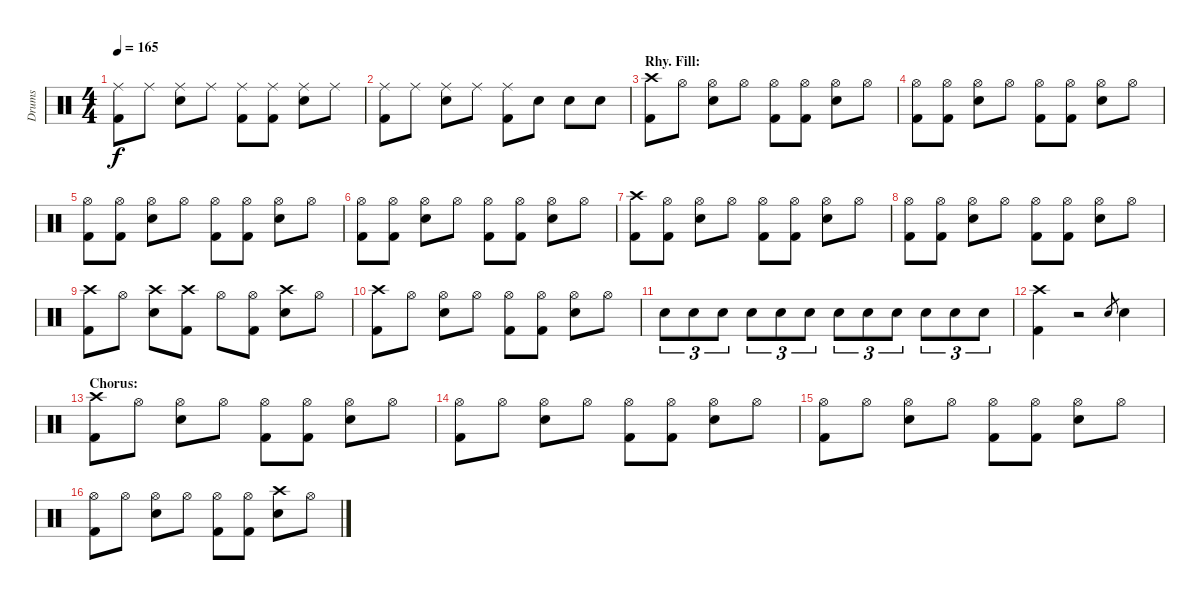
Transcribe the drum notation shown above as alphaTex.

\track ("Drums" "Drums") {instrument percussion}
\staff {score}
\articulation defaults
\ts (4 4)
\tempo 165
\clef neutral
\ks c
("Ride (middle)" "Kick (hit) 2").8{dy f} "Ride (middle)".8 ("Ride (middle)" "Electric Snare (hit)").8 "Ride (middle)".8 ("Ride (middle)" "Kick (hit) 2").8 ("Ride (middle)" "Kick (hit) 2").8 ("Ride (middle)" "Electric Snare (hit)").8 "Ride (middle)".8 |
("Ride (middle)" "Kick (hit) 2").8 "Ride (middle)".8 ("Ride (middle)" "Electric Snare (hit)").8 "Ride (middle)".8 ("Ride (middle)" "Kick (hit) 2").8 "Electric Snare (hit)".8 "Electric Snare (hit)".8 "Electric Snare (hit)".8 |
\section ("" "Rhy. Fill:")
("Crash high (hit)" "Kick (hit) 2").8 "Hi-Hat (open)".8 ("Hi-Hat (open)" "Electric Snare (hit)").8 "Hi-Hat (open)".8 ("Hi-Hat (open)" "Kick (hit) 2").8 ("Hi-Hat (open)" "Kick (hit) 2").8 ("Hi-Hat (open)" "Electric Snare (hit)").8 "Hi-Hat (open)".8 |
("Hi-Hat (open)" "Kick (hit) 2").8 ("Hi-Hat (open)" "Kick (hit) 2").8 ("Hi-Hat (open)" "Electric Snare (hit)").8 "Hi-Hat (open)".8 ("Hi-Hat (open)" "Kick (hit) 2").8 ("Hi-Hat (open)" "Kick (hit) 2").8 ("Hi-Hat (open)" "Electric Snare (hit)").8 "Hi-Hat (open)".8 |
("Hi-Hat (open)" "Kick (hit) 2").8 ("Hi-Hat (open)" "Kick (hit) 2").8 ("Hi-Hat (open)" "Electric Snare (hit)").8 "Hi-Hat (open)".8 ("Hi-Hat (open)" "Kick (hit) 2").8 ("Hi-Hat (open)" "Kick (hit) 2").8 ("Hi-Hat (open)" "Electric Snare (hit)").8 "Hi-Hat (open)".8 |
("Hi-Hat (open)" "Kick (hit) 2").8 ("Hi-Hat (open)" "Kick (hit) 2").8 ("Hi-Hat (open)" "Electric Snare (hit)").8 "Hi-Hat (open)".8 ("Hi-Hat (open)" "Kick (hit) 2").8 ("Hi-Hat (open)" "Kick (hit) 2").8 ("Hi-Hat (open)" "Electric Snare (hit)").8 "Hi-Hat (open)".8 |
("Crash high (hit)" "Kick (hit) 2").8 ("Hi-Hat (open)" "Kick (hit) 2").8 ("Hi-Hat (open)" "Electric Snare (hit)").8 "Hi-Hat (open)".8 ("Hi-Hat (open)" "Kick (hit) 2").8 ("Hi-Hat (open)" "Kick (hit) 2").8 ("Hi-Hat (open)" "Electric Snare (hit)").8 "Hi-Hat (open)".8 |
("Hi-Hat (open)" "Kick (hit) 2").8 ("Hi-Hat (open)" "Kick (hit) 2").8 ("Hi-Hat (open)" "Electric Snare (hit)").8 "Hi-Hat (open)".8 ("Hi-Hat (open)" "Kick (hit) 2").8 ("Hi-Hat (open)" "Kick (hit) 2").8 ("Hi-Hat (open)" "Electric Snare (hit)").8 "Hi-Hat (open)".8 |
("Crash high (hit)" "Kick (hit) 2").8 "Hi-Hat (open)".8 ("Crash high (hit)" "Electric Snare (hit)").8 ("Crash high (hit)" "Kick (hit) 2").8 "Hi-Hat (open)".8 ("Hi-Hat (open)" "Kick (hit) 2").8 ("Crash high (hit)" "Electric Snare (hit)").8 "Hi-Hat (open)".8 |
("Crash high (hit)" "Kick (hit) 2").8 "Hi-Hat (open)".8 ("Hi-Hat (open)" "Electric Snare (hit)").8 "Hi-Hat (open)".8 ("Hi-Hat (open)" "Kick (hit) 2").8 ("Hi-Hat (open)" "Kick (hit) 2").8 ("Hi-Hat (open)" "Electric Snare (hit)").8 "Hi-Hat (open)".8 |
"Electric Snare (hit)".8{tu (3 2)} "Electric Snare (hit)".8{tu (3 2)} "Electric Snare (hit)".8{tu (3 2)} "Electric Snare (hit)".8{tu (3 2)} "Electric Snare (hit)".8{tu (3 2)} "Electric Snare (hit)".8{tu (3 2)} "Electric Snare (hit)".8{tu (3 2)} "Electric Snare (hit)".8{tu (3 2)} "Electric Snare (hit)".8{tu (3 2)} "Electric Snare (hit)".8{tu (3 2)} "Electric Snare (hit)".8{tu (3 2)} "Electric Snare (hit)".8{tu (3 2)} |
("Crash high (hit)" "Kick (hit) 2").4 r.2 "Electric Snare (hit)".8{gr} "Electric Snare (hit)".4 |
\section ("" "Chorus:")
("Crash high (hit)" "Kick (hit) 2").8 "Hi-Hat (open)".8 ("Hi-Hat (open)" "Electric Snare (hit)").8 "Hi-Hat (open)".8 ("Hi-Hat (open)" "Kick (hit) 2").8 ("Hi-Hat (open)" "Kick (hit) 2").8 ("Hi-Hat (open)" "Electric Snare (hit)").8 "Hi-Hat (open)".8 |
("Hi-Hat (open)" "Kick (hit) 2").8 "Hi-Hat (open)".8 ("Hi-Hat (open)" "Electric Snare (hit)").8 "Hi-Hat (open)".8 ("Hi-Hat (open)" "Kick (hit) 2").8 ("Hi-Hat (open)" "Kick (hit) 2").8 ("Hi-Hat (open)" "Electric Snare (hit)").8 "Hi-Hat (open)".8 |
("Hi-Hat (open)" "Kick (hit) 2").8 "Hi-Hat (open)".8 ("Hi-Hat (open)" "Electric Snare (hit)").8 "Hi-Hat (open)".8 ("Hi-Hat (open)" "Kick (hit) 2").8 ("Hi-Hat (open)" "Kick (hit) 2").8 ("Hi-Hat (open)" "Electric Snare (hit)").8 "Hi-Hat (open)".8 |
("Hi-Hat (open)" "Kick (hit) 2").8 "Hi-Hat (open)".8 ("Hi-Hat (open)" "Electric Snare (hit)").8 "Hi-Hat (open)".8 ("Hi-Hat (open)" "Kick (hit) 2").8 ("Hi-Hat (open)" "Kick (hit) 2").8 ("Crash high (hit)" "Electric Snare (hit)").8 "Hi-Hat (open)".8
